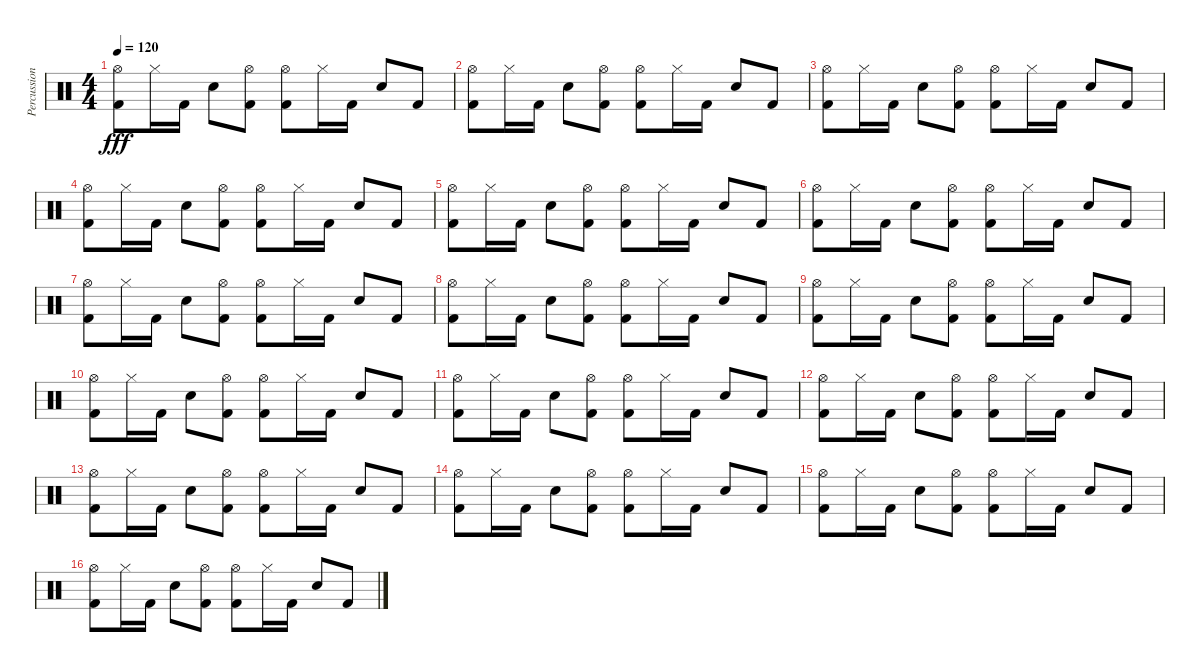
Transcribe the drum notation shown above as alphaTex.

\track ("Percussion" "Percussion") {instrument percussion}
\staff {score}
\articulation defaults
\ts (4 4)
\tempo 120
\clef neutral
\ks c
("Hi-Hat (open)" "Kick (hit) 2").8{dy fff} "Hi-Hat (closed)".16 "Kick (hit) 2".16 "Electric Snare (hit)".8 ("Hi-Hat (open)" "Kick (hit) 2").8 ("Hi-Hat (open)" "Kick (hit) 2").8 "Hi-Hat (closed)".16 "Kick (hit) 2".16 "Electric Snare (hit)".8 "Kick (hit) 2".8 |
("Hi-Hat (open)" "Kick (hit) 2").8 "Hi-Hat (closed)".16 "Kick (hit) 2".16 "Electric Snare (hit)".8 ("Hi-Hat (open)" "Kick (hit) 2").8 ("Hi-Hat (open)" "Kick (hit) 2").8 "Hi-Hat (closed)".16 "Kick (hit) 2".16 "Electric Snare (hit)".8 "Kick (hit) 2".8 |
("Hi-Hat (open)" "Kick (hit) 2").8 "Hi-Hat (closed)".16 "Kick (hit) 2".16 "Electric Snare (hit)".8 ("Hi-Hat (open)" "Kick (hit) 2").8 ("Hi-Hat (open)" "Kick (hit) 2").8 "Hi-Hat (closed)".16 "Kick (hit) 2".16 "Electric Snare (hit)".8 "Kick (hit) 2".8 |
("Hi-Hat (open)" "Kick (hit) 2").8 "Hi-Hat (closed)".16 "Kick (hit) 2".16 "Electric Snare (hit)".8 ("Hi-Hat (open)" "Kick (hit) 2").8 ("Hi-Hat (open)" "Kick (hit) 2").8 "Hi-Hat (closed)".16 "Kick (hit) 2".16 "Electric Snare (hit)".8 "Kick (hit) 2".8 |
("Hi-Hat (open)" "Kick (hit) 2").8 "Hi-Hat (closed)".16 "Kick (hit) 2".16 "Electric Snare (hit)".8 ("Hi-Hat (open)" "Kick (hit) 2").8 ("Hi-Hat (open)" "Kick (hit) 2").8 "Hi-Hat (closed)".16 "Kick (hit) 2".16 "Electric Snare (hit)".8 "Kick (hit) 2".8 |
("Hi-Hat (open)" "Kick (hit) 2").8 "Hi-Hat (closed)".16 "Kick (hit) 2".16 "Electric Snare (hit)".8 ("Hi-Hat (open)" "Kick (hit) 2").8 ("Hi-Hat (open)" "Kick (hit) 2").8 "Hi-Hat (closed)".16 "Kick (hit) 2".16 "Electric Snare (hit)".8 "Kick (hit) 2".8 |
("Hi-Hat (open)" "Kick (hit) 2").8 "Hi-Hat (closed)".16 "Kick (hit) 2".16 "Electric Snare (hit)".8 ("Hi-Hat (open)" "Kick (hit) 2").8 ("Hi-Hat (open)" "Kick (hit) 2").8 "Hi-Hat (closed)".16 "Kick (hit) 2".16 "Electric Snare (hit)".8 "Kick (hit) 2".8 |
("Hi-Hat (open)" "Kick (hit) 2").8 "Hi-Hat (closed)".16 "Kick (hit) 2".16 "Electric Snare (hit)".8 ("Hi-Hat (open)" "Kick (hit) 2").8 ("Hi-Hat (open)" "Kick (hit) 2").8 "Hi-Hat (closed)".16 "Kick (hit) 2".16 "Electric Snare (hit)".8 "Kick (hit) 2".8 |
("Hi-Hat (open)" "Kick (hit) 2").8 "Hi-Hat (closed)".16 "Kick (hit) 2".16 "Electric Snare (hit)".8 ("Hi-Hat (open)" "Kick (hit) 2").8 ("Hi-Hat (open)" "Kick (hit) 2").8 "Hi-Hat (closed)".16 "Kick (hit) 2".16 "Electric Snare (hit)".8 "Kick (hit) 2".8 |
("Hi-Hat (open)" "Kick (hit) 2").8 "Hi-Hat (closed)".16 "Kick (hit) 2".16 "Electric Snare (hit)".8 ("Hi-Hat (open)" "Kick (hit) 2").8 ("Hi-Hat (open)" "Kick (hit) 2").8 "Hi-Hat (closed)".16 "Kick (hit) 2".16 "Electric Snare (hit)".8 "Kick (hit) 2".8 |
("Hi-Hat (open)" "Kick (hit) 2").8 "Hi-Hat (closed)".16 "Kick (hit) 2".16 "Electric Snare (hit)".8 ("Hi-Hat (open)" "Kick (hit) 2").8 ("Hi-Hat (open)" "Kick (hit) 2").8 "Hi-Hat (closed)".16 "Kick (hit) 2".16 "Electric Snare (hit)".8 "Kick (hit) 2".8 |
("Hi-Hat (open)" "Kick (hit) 2").8 "Hi-Hat (closed)".16 "Kick (hit) 2".16 "Electric Snare (hit)".8 ("Hi-Hat (open)" "Kick (hit) 2").8 ("Hi-Hat (open)" "Kick (hit) 2").8 "Hi-Hat (closed)".16 "Kick (hit) 2".16 "Electric Snare (hit)".8 "Kick (hit) 2".8 |
("Hi-Hat (open)" "Kick (hit) 2").8 "Hi-Hat (closed)".16 "Kick (hit) 2".16 "Electric Snare (hit)".8 ("Hi-Hat (open)" "Kick (hit) 2").8 ("Hi-Hat (open)" "Kick (hit) 2").8 "Hi-Hat (closed)".16 "Kick (hit) 2".16 "Electric Snare (hit)".8 "Kick (hit) 2".8 |
("Hi-Hat (open)" "Kick (hit) 2").8 "Hi-Hat (closed)".16 "Kick (hit) 2".16 "Electric Snare (hit)".8 ("Hi-Hat (open)" "Kick (hit) 2").8 ("Hi-Hat (open)" "Kick (hit) 2").8 "Hi-Hat (closed)".16 "Kick (hit) 2".16 "Electric Snare (hit)".8 "Kick (hit) 2".8 |
("Hi-Hat (open)" "Kick (hit) 2").8 "Hi-Hat (closed)".16 "Kick (hit) 2".16 "Electric Snare (hit)".8 ("Hi-Hat (open)" "Kick (hit) 2").8 ("Hi-Hat (open)" "Kick (hit) 2").8 "Hi-Hat (closed)".16 "Kick (hit) 2".16 "Electric Snare (hit)".8 "Kick (hit) 2".8 |
("Hi-Hat (open)" "Kick (hit) 2").8 "Hi-Hat (closed)".16 "Kick (hit) 2".16 "Electric Snare (hit)".8 ("Hi-Hat (open)" "Kick (hit) 2").8 ("Hi-Hat (open)" "Kick (hit) 2").8 "Hi-Hat (closed)".16 "Kick (hit) 2".16 "Electric Snare (hit)".8 "Kick (hit) 2".8
